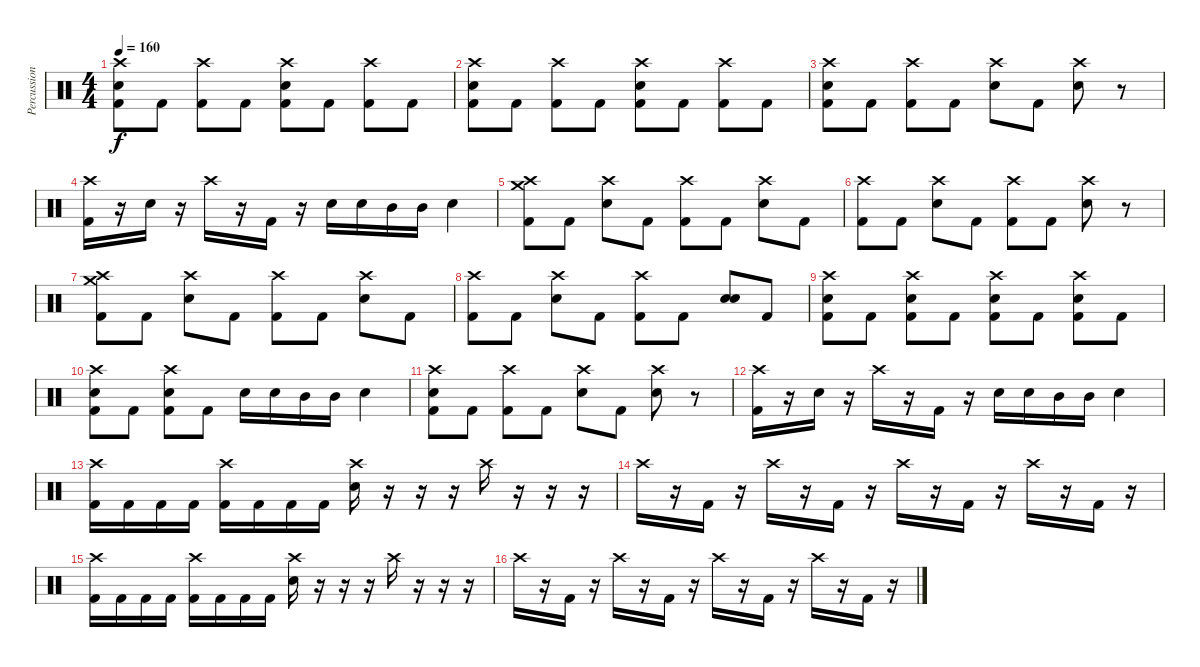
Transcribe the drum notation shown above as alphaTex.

\track ("Percussion" "Percussion") {instrument percussion}
\staff {score}
\articulation defaults
\ts (4 4)
\tempo 160
\clef neutral
\ks c
("Crash high (hit)" "Snare (hit) 2" "Kick (hit) 2").8{dy f} "Kick (hit) 2".8 ("Crash high (hit)" "Kick (hit) 2").8 "Kick (hit) 2".8 ("Crash high (hit)" "Snare (hit) 2" "Kick (hit) 2").8 "Kick (hit) 2".8 ("Crash high (hit)" "Kick (hit) 2").8 "Kick (hit) 2".8 |
("Crash high (hit)" "Snare (hit) 2" "Kick (hit) 2").8 "Kick (hit) 2".8 ("Crash high (hit)" "Kick (hit) 2").8 "Kick (hit) 2".8 ("Crash high (hit)" "Snare (hit) 2" "Kick (hit) 2").8 "Kick (hit) 2".8 ("Crash high (hit)" "Kick (hit) 2").8 "Kick (hit) 2".8 |
("Crash high (hit)" "Snare (hit) 2" "Kick (hit) 2").8 "Kick (hit) 2".8 ("Crash high (hit)" "Kick (hit) 2").8 "Kick (hit) 2".8 ("Crash high (hit)" "Snare (hit) 2").8 "Kick (hit) 2".8 ("Crash high (hit)" "Snare (hit) 2").8 r.8 |
("Crash high (hit)" "Kick (hit) 2").16 r.16 "Snare (hit) 2".16 r.16 "Crash high (hit)".16 r.16 "Kick (hit) 2".16 r.16 "Snare (hit) 2".16 "Snare (hit) 2".16 "Mid Tom (hit)".16 "Mid Tom (hit)".16 "Snare (hit) 2".4 |
("Crash high (hit)" "Crash medium (hit)" "Kick (hit) 2").8 "Kick (hit) 2".8 ("Crash high (hit)" "Snare (hit) 2").8 "Kick (hit) 2".8 ("Crash high (hit)" "Kick (hit) 2").8 "Kick (hit) 2".8 ("Crash high (hit)" "Snare (hit) 2").8 "Kick (hit) 2".8 |
("Crash high (hit)" "Kick (hit) 2").8 "Kick (hit) 2".8 ("Crash high (hit)" "Snare (hit) 2").8 "Kick (hit) 2".8 ("Crash high (hit)" "Kick (hit) 2").8 "Kick (hit) 2".8 ("Crash high (hit)" "Snare (hit) 2").8 r.8 |
("Crash high (hit)" "Crash medium (hit)" "Kick (hit) 2").8 "Kick (hit) 2".8 ("Crash high (hit)" "Snare (hit) 2").8 "Kick (hit) 2".8 ("Crash high (hit)" "Kick (hit) 2").8 "Kick (hit) 2".8 ("Crash high (hit)" "Snare (hit) 2").8 "Kick (hit) 2".8 |
("Crash high (hit)" "Kick (hit) 2").8 "Kick (hit) 2".8 ("Crash high (hit)" "Snare (hit) 2").8 "Kick (hit) 2".8 ("Crash high (hit)" "Kick (hit) 2").8 "Kick (hit) 2".8 ("Snare (hit) 2" "Snare (hit) 2").8{bd 240} "Kick (hit) 2".8 |
("Crash high (hit)" "Snare (hit) 2" "Kick (hit) 2").8 "Kick (hit) 2".8 ("Crash high (hit)" "Snare (hit) 2" "Kick (hit) 2").8 "Kick (hit) 2".8 ("Crash high (hit)" "Snare (hit) 2" "Kick (hit) 2").8 "Kick (hit) 2".8 ("Crash high (hit)" "Snare (hit) 2" "Kick (hit) 2").8 "Kick (hit) 2".8 |
("Crash high (hit)" "Snare (hit) 2" "Kick (hit) 2").8 "Kick (hit) 2".8 ("Crash high (hit)" "Snare (hit) 2" "Kick (hit) 2").8 "Kick (hit) 2".8 "Snare (hit) 2".16 "Snare (hit) 2".16 "Mid Tom (hit)".16 "Mid Tom (hit)".16 "Snare (hit) 2".4 |
("Crash high (hit)" "Snare (hit) 2" "Kick (hit) 2").8 "Kick (hit) 2".8 ("Crash high (hit)" "Kick (hit) 2").8 "Kick (hit) 2".8 ("Crash high (hit)" "Snare (hit) 2").8 "Kick (hit) 2".8 ("Crash high (hit)" "Snare (hit) 2").8 r.8 |
("Crash high (hit)" "Kick (hit) 2").16 r.16 "Snare (hit) 2".16 r.16 "Crash high (hit)".16 r.16 "Kick (hit) 2".16 r.16 "Snare (hit) 2".16 "Snare (hit) 2".16 "Mid Tom (hit)".16 "Mid Tom (hit)".16 "Snare (hit) 2".4 |
("Crash high (hit)" "Kick (hit) 2").16 "Kick (hit) 2".16 "Kick (hit) 2".16 "Kick (hit) 2".16 ("Crash high (hit)" "Kick (hit) 2").16 "Kick (hit) 2".16 "Kick (hit) 2".16 "Kick (hit) 2".16 ("Crash high (hit)" "Snare (hit) 2").16 r.16 r.16 r.16 "Crash high (hit)".16 r.16 r.16 r.16 |
"Crash high (hit)".16 r.16 "Kick (hit) 2".16 r.16 "Crash high (hit)".16 r.16 "Kick (hit) 2".16 r.16 "Crash high (hit)".16 r.16 "Kick (hit) 2".16 r.16 "Crash high (hit)".16 r.16 "Kick (hit) 2".16 r.16 |
("Crash high (hit)" "Kick (hit) 2").16 "Kick (hit) 2".16 "Kick (hit) 2".16 "Kick (hit) 2".16 ("Crash high (hit)" "Kick (hit) 2").16 "Kick (hit) 2".16 "Kick (hit) 2".16 "Kick (hit) 2".16 ("Crash high (hit)" "Snare (hit) 2").16 r.16 r.16 r.16 "Crash high (hit)".16 r.16 r.16 r.16 |
"Crash high (hit)".16 r.16 "Kick (hit) 2".16 r.16 "Crash high (hit)".16 r.16 "Kick (hit) 2".16 r.16 "Crash high (hit)".16 r.16 "Kick (hit) 2".16 r.16 "Crash high (hit)".16 r.16 "Kick (hit) 2".16 r.16
